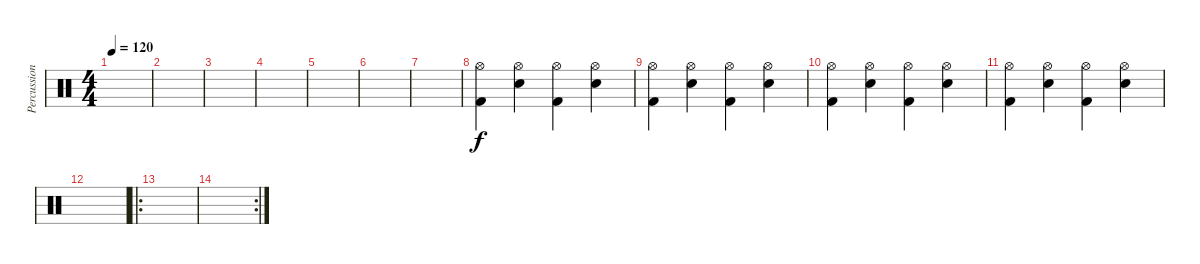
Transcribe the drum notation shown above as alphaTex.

\track ("Percussions" "Percussion") {instrument percussion}
\staff {score}
\articulation defaults
\ts (4 4)
\tempo 120
\clef neutral
\ks c
|
|
|
|
|
|
|
("Kick (hit) 2" "Hi-Hat (open)").4 ("Electric Snare (hit)" "Hi-Hat (open)").4 ("Kick (hit) 2" "Hi-Hat (open)").4 ("Electric Snare (hit)" "Hi-Hat (open)").4 |
("Kick (hit) 2" "Hi-Hat (open)").4 ("Electric Snare (hit)" "Hi-Hat (open)").4 ("Kick (hit) 2" "Hi-Hat (open)").4 ("Electric Snare (hit)" "Hi-Hat (open)").4 |
("Kick (hit) 2" "Hi-Hat (open)").4 ("Electric Snare (hit)" "Hi-Hat (open)").4 ("Kick (hit) 2" "Hi-Hat (open)").4 ("Electric Snare (hit)" "Hi-Hat (open)").4 |
("Kick (hit) 2" "Hi-Hat (open)").4 ("Electric Snare (hit)" "Hi-Hat (open)").4 ("Kick (hit) 2" "Hi-Hat (open)").4 ("Electric Snare (hit)" "Hi-Hat (open)").4 |
|
\ro
|
\rc 2
